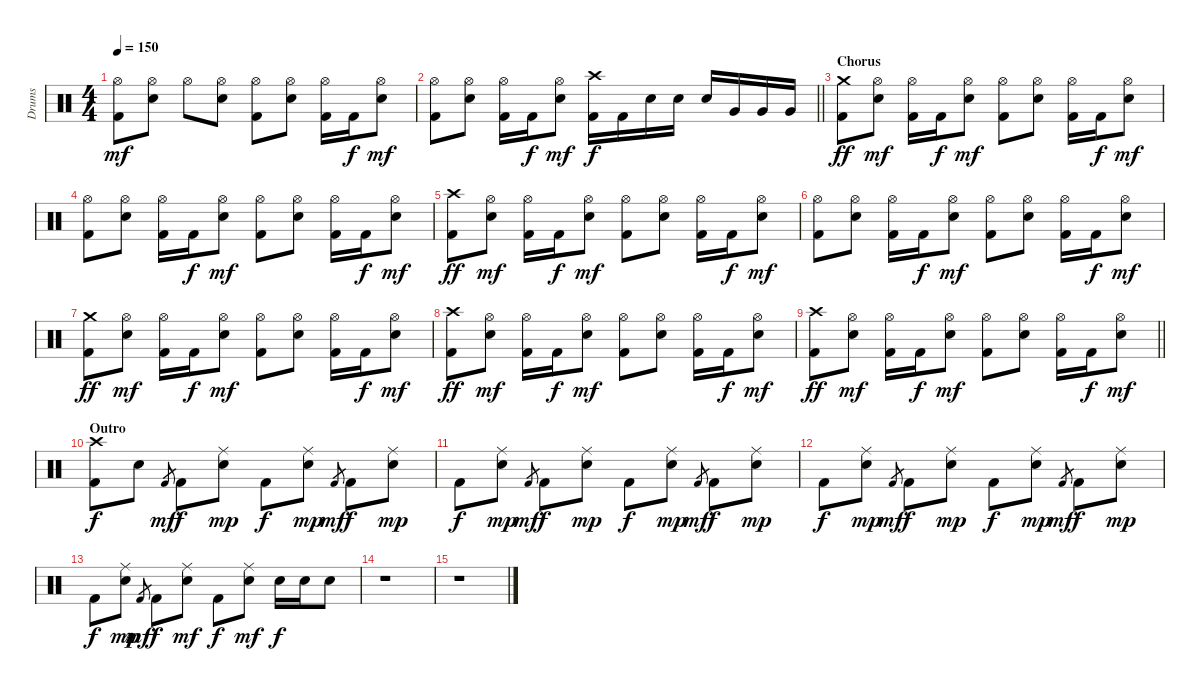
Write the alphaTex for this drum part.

\track ("Drums" "Drums") {instrument percussion}
\staff {score}
\articulation defaults
\ts (4 4)
\tempo 150
\clef neutral
\ks c
("Hi-Hat (open)" "Kick (hit) 2").8{dy mf} ("Hi-Hat (open)" "Electric Snare (hit)").8 "Hi-Hat (open)".8 ("Hi-Hat (open)" "Electric Snare (hit)").8 ("Hi-Hat (open)" "Kick (hit) 2").8 ("Hi-Hat (open)" "Electric Snare (hit)").8 ("Hi-Hat (open)" "Kick (hit) 2").16 "Kick (hit) 2".16{dy f} ("Hi-Hat (open)" "Electric Snare (hit)").8{dy mf} |
\barLineRight lightlight
("Hi-Hat (open)" "Kick (hit) 2").8 ("Hi-Hat (open)" "Electric Snare (hit)").8 ("Hi-Hat (open)" "Kick (hit) 2").16 "Kick (hit) 2".16{dy f} ("Hi-Hat (open)" "Electric Snare (hit)").8{dy mf} ("Crash high (hit)" "Kick (hit) 2").16{dy f} "Kick (hit) 2".16 "Electric Snare (hit)".16 "Electric Snare (hit)".16 "Electric Snare (hit)".16 "Very Low Tom (hit)".16 "Very Low Tom (hit)".16 "Very Low Tom (hit)".16 |
\section ("" "Chorus")
("Crash medium (hit)" "Kick (hit) 2").8{dy ff} ("Hi-Hat (open)" "Electric Snare (hit)").8{dy mf} ("Hi-Hat (open)" "Kick (hit) 2").16 "Kick (hit) 2".16{dy f} ("Hi-Hat (open)" "Electric Snare (hit)").8{dy mf} ("Hi-Hat (open)" "Kick (hit) 2").8 ("Hi-Hat (open)" "Electric Snare (hit)").8 ("Hi-Hat (open)" "Kick (hit) 2").16 "Kick (hit) 2".16{dy f} ("Hi-Hat (open)" "Electric Snare (hit)").8{dy mf} |
("Hi-Hat (open)" "Kick (hit) 2").8 ("Hi-Hat (open)" "Electric Snare (hit)").8 ("Hi-Hat (open)" "Kick (hit) 2").16 "Kick (hit) 2".16{dy f} ("Hi-Hat (open)" "Electric Snare (hit)").8{dy mf} ("Hi-Hat (open)" "Kick (hit) 2").8 ("Hi-Hat (open)" "Electric Snare (hit)").8 ("Hi-Hat (open)" "Kick (hit) 2").16 "Kick (hit) 2".16{dy f} ("Hi-Hat (open)" "Electric Snare (hit)").8{dy mf} |
("Crash high (hit)" "Kick (hit) 2").8{dy ff} ("Hi-Hat (open)" "Electric Snare (hit)").8{dy mf} ("Hi-Hat (open)" "Kick (hit) 2").16 "Kick (hit) 2".16{dy f} ("Hi-Hat (open)" "Electric Snare (hit)").8{dy mf} ("Hi-Hat (open)" "Kick (hit) 2").8 ("Hi-Hat (open)" "Electric Snare (hit)").8 ("Hi-Hat (open)" "Kick (hit) 2").16 "Kick (hit) 2".16{dy f} ("Hi-Hat (open)" "Electric Snare (hit)").8{dy mf} |
("Hi-Hat (open)" "Kick (hit) 2").8 ("Hi-Hat (open)" "Electric Snare (hit)").8 ("Hi-Hat (open)" "Kick (hit) 2").16 "Kick (hit) 2".16{dy f} ("Hi-Hat (open)" "Electric Snare (hit)").8{dy mf} ("Hi-Hat (open)" "Kick (hit) 2").8 ("Hi-Hat (open)" "Electric Snare (hit)").8 ("Hi-Hat (open)" "Kick (hit) 2").16 "Kick (hit) 2".16{dy f} ("Hi-Hat (open)" "Electric Snare (hit)").8{dy mf} |
("Crash medium (hit)" "Kick (hit) 2").8{dy ff} ("Hi-Hat (open)" "Electric Snare (hit)").8{dy mf} ("Hi-Hat (open)" "Kick (hit) 2").16 "Kick (hit) 2".16{dy f} ("Hi-Hat (open)" "Electric Snare (hit)").8{dy mf} ("Hi-Hat (open)" "Kick (hit) 2").8 ("Hi-Hat (open)" "Electric Snare (hit)").8 ("Hi-Hat (open)" "Kick (hit) 2").16 "Kick (hit) 2".16{dy f} ("Hi-Hat (open)" "Electric Snare (hit)").8{dy mf} |
("Crash high (hit)" "Kick (hit) 2").8{dy ff} ("Hi-Hat (open)" "Electric Snare (hit)").8{dy mf} ("Hi-Hat (open)" "Kick (hit) 2").16 "Kick (hit) 2".16{dy f} ("Hi-Hat (open)" "Electric Snare (hit)").8{dy mf} ("Hi-Hat (open)" "Kick (hit) 2").8 ("Hi-Hat (open)" "Electric Snare (hit)").8 ("Hi-Hat (open)" "Kick (hit) 2").16 "Kick (hit) 2".16{dy f} ("Hi-Hat (open)" "Electric Snare (hit)").8{dy mf} |
\barLineRight lightlight
("Crash high (hit)" "Kick (hit) 2").8{dy ff} ("Hi-Hat (open)" "Electric Snare (hit)").8{dy mf} ("Hi-Hat (open)" "Kick (hit) 2").16 "Kick (hit) 2".16{dy f} ("Hi-Hat (open)" "Electric Snare (hit)").8{dy mf} ("Hi-Hat (open)" "Kick (hit) 2").8 ("Hi-Hat (open)" "Electric Snare (hit)").8 ("Hi-Hat (open)" "Kick (hit) 2").16 "Kick (hit) 2".16{dy f} ("Hi-Hat (open)" "Electric Snare (hit)").8{dy mf} |
\section ("" "Outro")
("Crash high (hit)" "Kick (hit) 2").8{dy f} "Electric Snare (hit)".8 "Kick (hit) 2".8{gr dy mf} "Kick (hit) 2".8{dy f} ("Ride (middle)" "Electric Snare (hit)").8{dy mp} "Kick (hit) 2".8{dy f} ("Ride (middle)" "Electric Snare (hit)").8{dy mp} "Kick (hit) 2".8{gr dy mf} "Kick (hit) 2".8{dy f} ("Ride (middle)" "Electric Snare (hit)").8{dy mp} |
"Kick (hit) 2".8{dy f} ("Ride (middle)" "Electric Snare (hit)").8{dy mp} "Kick (hit) 2".8{gr dy mf} "Kick (hit) 2".8{dy f} ("Ride (middle)" "Electric Snare (hit)").8{dy mp} "Kick (hit) 2".8{dy f} ("Ride (middle)" "Electric Snare (hit)").8{dy mp} "Kick (hit) 2".8{gr dy mf} "Kick (hit) 2".8{dy f} ("Ride (middle)" "Electric Snare (hit)").8{dy mp} |
"Kick (hit) 2".8{dy f} ("Ride (middle)" "Electric Snare (hit)").8{dy mp} "Kick (hit) 2".8{gr dy mf} "Kick (hit) 2".8{dy f} ("Ride (middle)" "Electric Snare (hit)").8{dy mp} "Kick (hit) 2".8{dy f} ("Ride (middle)" "Electric Snare (hit)").8{dy mp} "Kick (hit) 2".8{gr dy mf} "Kick (hit) 2".8{dy f} ("Ride (middle)" "Electric Snare (hit)").8{dy mp} |
"Kick (hit) 2".8{dy f} ("Ride (middle)" "Electric Snare (hit)").8{dy mp} "Kick (hit) 2".8{gr dy mf} "Kick (hit) 2".8{dy f} ("Ride (middle)" "Electric Snare (hit)").8{dy mf} "Kick (hit) 2".8{dy f} ("Ride (middle)" "Electric Snare (hit)").8{dy mf} "Electric Snare (hit)".16{dy f} "Electric Snare (hit)".16 "Electric Snare (hit)".8 |
r.1 |
r.1
